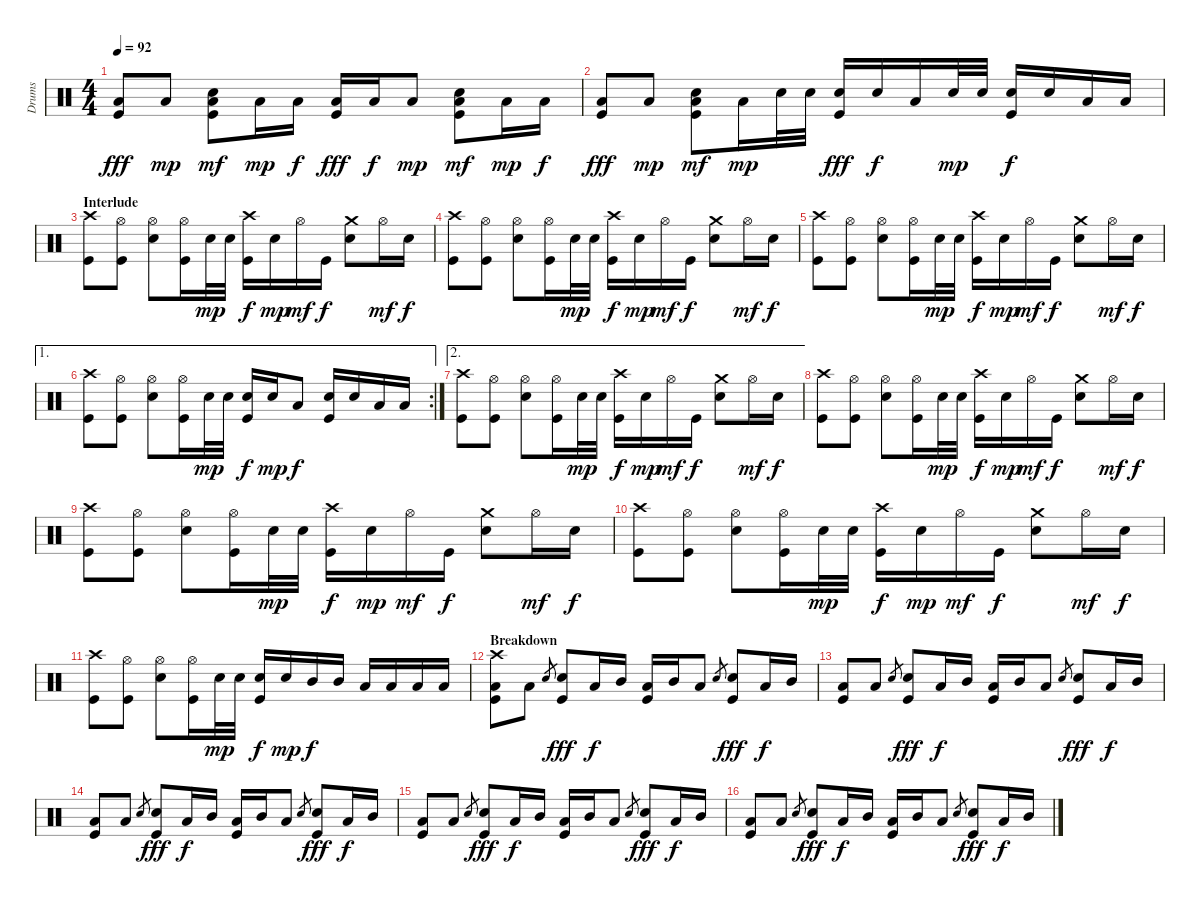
\track ("Drums" "Drums") {instrument percussion}
\staff {score}
\articulation defaults
\ts (4 4)
\tempo 92
\clef neutral
\ks c
("Low Floor Tom (hit)" "Kick (hit)").8{dy fff} "Low Floor Tom (hit)".8{dy mp} ("Electric Snare (hit)" "Low Floor Tom (hit)" "Kick (hit)").8{dy mf} "Low Floor Tom (hit)".16{dy mp} "Low Tom (hit)".16{dy f} ("Low Floor Tom (hit)" "Kick (hit)").16{dy fff} "Low Tom (hit)".16{dy f} "Low Floor Tom (hit)".8{dy mp} ("Electric Snare (hit)" "Low Floor Tom (hit)" "Kick (hit)").8{dy mf} "Low Floor Tom (hit)".16{dy mp} "Low Tom (hit)".16{dy f} |
("Low Floor Tom (hit)" "Kick (hit)").8{dy fff} "Low Floor Tom (hit)".8{dy mp} ("Electric Snare (hit)" "Low Floor Tom (hit)" "Kick (hit)").8{dy mf} "Low Floor Tom (hit)".16{dy mp} "Electric Snare (hit)".32 "Electric Snare (hit)".32 ("Electric Snare (hit)" "Kick (hit)").16{dy fff} "Electric Snare (hit)".16{dy f} "Low Tom (hit)".16 "Electric Snare (hit)".32{dy mp} "Electric Snare (hit)".32 ("Electric Snare (hit)" "Kick (hit)").16{dy f} "Electric Snare (hit)".16 "Low Tom (hit)".16 "Low Tom (hit)".16 |
\section ("" "Interlude")
("Crash high (hit)" "Kick (hit)").8 ("Hi-Hat (open)" "Kick (hit)").8 ("Hi-Hat (open)" "Electric Snare (hit)").8 ("Hi-Hat (open)" "Kick (hit)").16 "Electric Snare (hit)".32{dy mp} "Electric Snare (hit)".32 ("Crash high (hit)" "Kick (hit)").16{dy f} "Electric Snare (hit)".16{dy mp} "Hi-Hat (open)".16{dy mf} "Kick (hit)".16{dy f} ("Crash medium (hit)" "Electric Snare (hit)").8 "Hi-Hat (open)".16{dy mf} "Electric Snare (hit)".16{dy f} |
("Crash high (hit)" "Kick (hit)").8 ("Hi-Hat (open)" "Kick (hit)").8 ("Hi-Hat (open)" "Electric Snare (hit)").8 ("Hi-Hat (open)" "Kick (hit)").16 "Electric Snare (hit)".32{dy mp} "Electric Snare (hit)".32 ("Crash high (hit)" "Kick (hit)").16{dy f} "Electric Snare (hit)".16{dy mp} "Hi-Hat (open)".16{dy mf} "Kick (hit)".16{dy f} ("Crash medium (hit)" "Electric Snare (hit)").8 "Hi-Hat (open)".16{dy mf} "Electric Snare (hit)".16{dy f} |
("Crash high (hit)" "Kick (hit)").8 ("Hi-Hat (open)" "Kick (hit)").8 ("Hi-Hat (open)" "Electric Snare (hit)").8 ("Hi-Hat (open)" "Kick (hit)").16 "Electric Snare (hit)".32{dy mp} "Electric Snare (hit)".32 ("Crash high (hit)" "Kick (hit)").16{dy f} "Electric Snare (hit)".16{dy mp} "Hi-Hat (open)".16{dy mf} "Kick (hit)".16{dy f} ("Crash medium (hit)" "Electric Snare (hit)").8 "Hi-Hat (open)".16{dy mf} "Electric Snare (hit)".16{dy f} |
\ae 1
\rc 2
("Crash high (hit)" "Kick (hit)").8 ("Hi-Hat (open)" "Kick (hit)").8 ("Hi-Hat (open)" "Electric Snare (hit)").8 ("Hi-Hat (open)" "Kick (hit)").16 "Electric Snare (hit)".32{dy mp} "Electric Snare (hit)".32 ("Electric Snare (hit)" "Kick (hit)").16{dy f} "Electric Snare (hit)".16{dy mp} "Low Tom (hit)".8{dy f} ("Electric Snare (hit)" "Kick (hit)").16 "Electric Snare (hit)".16 "Low Floor Tom (hit)".16 "Low Floor Tom (hit)".16 |
\ae 2
("Crash high (hit)" "Kick (hit)").8 ("Hi-Hat (open)" "Kick (hit)").8 ("Hi-Hat (open)" "Electric Snare (hit)").8 ("Hi-Hat (open)" "Kick (hit)").16 "Electric Snare (hit)".32{dy mp} "Electric Snare (hit)".32 ("Crash high (hit)" "Kick (hit)").16{dy f} "Electric Snare (hit)".16{dy mp} "Hi-Hat (open)".16{dy mf} "Kick (hit)".16{dy f} ("Crash medium (hit)" "Electric Snare (hit)").8 "Hi-Hat (open)".16{dy mf} "Electric Snare (hit)".16{dy f} |
("Crash high (hit)" "Kick (hit)").8 ("Hi-Hat (open)" "Kick (hit)").8 ("Hi-Hat (open)" "Electric Snare (hit)").8 ("Hi-Hat (open)" "Kick (hit)").16 "Electric Snare (hit)".32{dy mp} "Electric Snare (hit)".32 ("Crash high (hit)" "Kick (hit)").16{dy f} "Electric Snare (hit)".16{dy mp} "Hi-Hat (open)".16{dy mf} "Kick (hit)".16{dy f} ("Crash medium (hit)" "Electric Snare (hit)").8 "Hi-Hat (open)".16{dy mf} "Electric Snare (hit)".16{dy f} |
("Crash high (hit)" "Kick (hit)").8 ("Hi-Hat (open)" "Kick (hit)").8 ("Hi-Hat (open)" "Electric Snare (hit)").8 ("Hi-Hat (open)" "Kick (hit)").16 "Electric Snare (hit)".32{dy mp} "Electric Snare (hit)".32 ("Crash high (hit)" "Kick (hit)").16{dy f} "Electric Snare (hit)".16{dy mp} "Hi-Hat (open)".16{dy mf} "Kick (hit)".16{dy f} ("Crash medium (hit)" "Electric Snare (hit)").8 "Hi-Hat (open)".16{dy mf} "Electric Snare (hit)".16{dy f} |
("Crash high (hit)" "Kick (hit)").8 ("Hi-Hat (open)" "Kick (hit)").8 ("Hi-Hat (open)" "Electric Snare (hit)").8 ("Hi-Hat (open)" "Kick (hit)").16 "Electric Snare (hit)".32{dy mp} "Electric Snare (hit)".32 ("Crash high (hit)" "Kick (hit)").16{dy f} "Electric Snare (hit)".16{dy mp} "Hi-Hat (open)".16{dy mf} "Kick (hit)".16{dy f} ("Crash medium (hit)" "Electric Snare (hit)").8 "Hi-Hat (open)".16{dy mf} "Electric Snare (hit)".16{dy f} |
("Crash high (hit)" "Kick (hit)").8 ("Hi-Hat (open)" "Kick (hit)").8 ("Hi-Hat (open)" "Electric Snare (hit)").8 ("Hi-Hat (open)" "Kick (hit)").16 "Electric Snare (hit)".32{dy mp} "Electric Snare (hit)".32 ("Electric Snare (hit)" "Kick (hit)").16{dy f} "Electric Snare (hit)".16{dy mp} "Mid Tom (hit)".16{dy f} "Mid Tom (hit)".16 "Low Tom (hit)".16 "Low Tom (hit)".16 "Low Floor Tom (hit)".16 "Low Floor Tom (hit)".16 |
\section ("" "Breakdown")
("Crash high (hit)" "Low Floor Tom (hit)" "Kick (hit)").8 "Low Floor Tom (hit)".8 "Electric Snare (hit)".8{gr} ("Electric Snare (hit)" "Kick (hit)").8{dy fff} "Low Floor Tom (hit)".16{dy f} "Mid Tom (hit)".16 ("Low Floor Tom (hit)" "Kick (hit)").16 "Mid Tom (hit)".16 "Low Tom (hit)".8 "Electric Snare (hit)".8{gr} ("Electric Snare (hit)" "Kick (hit)").8{dy fff} "Low Tom (hit)".16{dy f} "Mid Tom (hit)".16 |
("Low Floor Tom (hit)" "Kick (hit)").8 "Low Floor Tom (hit)".8 "Electric Snare (hit)".8{gr} ("Electric Snare (hit)" "Kick (hit)").8{dy fff} "Low Floor Tom (hit)".16{dy f} "Mid Tom (hit)".16 ("Low Floor Tom (hit)" "Kick (hit)").16 "Mid Tom (hit)".16 "Low Tom (hit)".8 "Electric Snare (hit)".8{gr} ("Electric Snare (hit)" "Kick (hit)").8{dy fff} "Low Tom (hit)".16{dy f} "Mid Tom (hit)".16 |
("Low Floor Tom (hit)" "Kick (hit)").8 "Low Floor Tom (hit)".8 "Electric Snare (hit)".8{gr} ("Electric Snare (hit)" "Kick (hit)").8{dy fff} "Low Floor Tom (hit)".16{dy f} "Mid Tom (hit)".16 ("Low Floor Tom (hit)" "Kick (hit)").16 "Mid Tom (hit)".16 "Low Tom (hit)".8 "Electric Snare (hit)".8{gr} ("Electric Snare (hit)" "Kick (hit)").8{dy fff} "Low Tom (hit)".16{dy f} "Mid Tom (hit)".16 |
("Low Floor Tom (hit)" "Kick (hit)").8 "Low Floor Tom (hit)".8 "Electric Snare (hit)".8{gr} ("Electric Snare (hit)" "Kick (hit)").8{dy fff} "Low Floor Tom (hit)".16{dy f} "Mid Tom (hit)".16 ("Low Floor Tom (hit)" "Kick (hit)").16 "Mid Tom (hit)".16 "Low Tom (hit)".8 "Electric Snare (hit)".8{gr} ("Electric Snare (hit)" "Kick (hit)").8{dy fff} "Low Tom (hit)".16{dy f} "Mid Tom (hit)".16 |
("Low Floor Tom (hit)" "Kick (hit)").8 "Low Floor Tom (hit)".8 "Electric Snare (hit)".8{gr} ("Electric Snare (hit)" "Kick (hit)").8{dy fff} "Low Floor Tom (hit)".16{dy f} "Mid Tom (hit)".16 ("Low Floor Tom (hit)" "Kick (hit)").16 "Mid Tom (hit)".16 "Low Tom (hit)".8 "Electric Snare (hit)".8{gr} ("Electric Snare (hit)" "Kick (hit)").8{dy fff} "Low Tom (hit)".16{dy f} "Mid Tom (hit)".16
